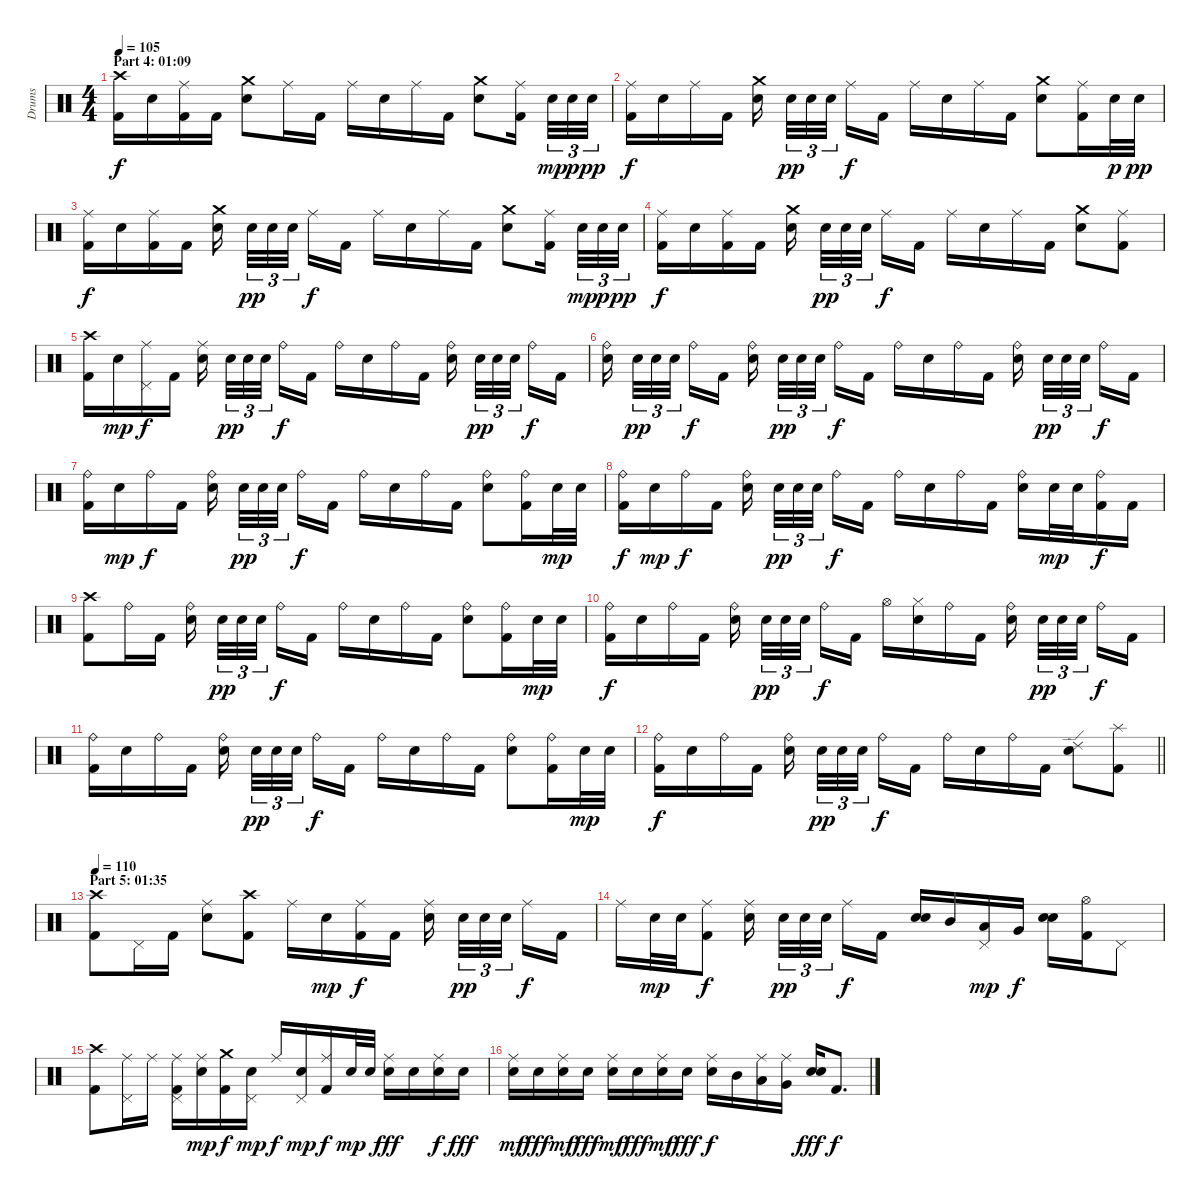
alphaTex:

\track ("Drums" "Drums") {instrument percussion}
\staff {score}
\articulation defaults
\ts (4 4)
\section ("" "Part 4: 01:09")
\tempo 105
\clef neutral
\ks c
("Crash high (hit)" "Kick (hit) 2").16{dy f} "Electric Snare (hit)".16 ("Ride (middle)" "Kick (hit) 2").16 "Kick (hit) 2".16 ("Crash medium (hit)" "Electric Snare (hit)").8 "Ride (middle)".16 "Kick (hit) 2".16 "Ride (middle)".16 "Electric Snare (hit)".16 "Ride (middle)".16 "Kick (hit) 2".16 ("Crash medium (hit)" "Electric Snare (hit)").8 ("Ride (middle)" "Kick (hit) 2").16{beam splitsecondary} "Electric Snare (hit)".32{tu (3 2) dy mp} "Electric Snare (hit)".32{tu (3 2) dy p} "Electric Snare (hit)".32{tu (3 2) dy pp} |
("Ride (middle)" "Kick (hit) 2").16{dy f} "Electric Snare (hit)".16 "Ride (middle)".16 "Kick (hit) 2".16 ("Crash medium (hit)" "Electric Snare (hit)").16{beam splitsecondary} "Electric Snare (hit)".32{tu (3 2) dy pp} "Electric Snare (hit)".32{tu (3 2)} "Electric Snare (hit)".32{tu (3 2) beam splitsecondary} "Ride (middle)".16{dy f} "Kick (hit) 2".16 "Ride (middle)".16 "Electric Snare (hit)".16 "Ride (middle)".16 "Kick (hit) 2".16 ("Crash medium (hit)" "Electric Snare (hit)").8 ("Ride (middle)" "Kick (hit) 2").16 "Electric Snare (hit)".32{dy p} "Electric Snare (hit)".32{dy pp} |
("Ride (middle)" "Kick (hit) 2").16{dy f} "Electric Snare (hit)".16 ("Ride (middle)" "Kick (hit) 2").16 "Kick (hit) 2".16 ("Crash medium (hit)" "Electric Snare (hit)").16{beam splitsecondary} "Electric Snare (hit)".32{tu (3 2) dy pp} "Electric Snare (hit)".32{tu (3 2)} "Electric Snare (hit)".32{tu (3 2) beam splitsecondary} "Ride (middle)".16{dy f} "Kick (hit) 2".16 "Ride (middle)".16 "Electric Snare (hit)".16 "Ride (middle)".16 "Kick (hit) 2".16 ("Crash medium (hit)" "Electric Snare (hit)").8 ("Ride (middle)" "Kick (hit) 2").16{beam splitsecondary} "Electric Snare (hit)".32{tu (3 2) dy mp} "Electric Snare (hit)".32{tu (3 2) dy p} "Electric Snare (hit)".32{tu (3 2) dy pp} |
("Ride (middle)" "Kick (hit) 2").16{dy f} "Electric Snare (hit)".16 ("Ride (middle)" "Kick (hit) 2").16 "Kick (hit) 2".16 ("Crash medium (hit)" "Electric Snare (hit)").16{beam splitsecondary} "Electric Snare (hit)".32{tu (3 2) dy pp} "Electric Snare (hit)".32{tu (3 2)} "Electric Snare (hit)".32{tu (3 2) beam splitsecondary} "Ride (middle)".16{dy f} "Kick (hit) 2".16 "Ride (middle)".16 "Electric Snare (hit)".16 "Ride (middle)".16 "Kick (hit) 2".16 ("Crash medium (hit)" "Electric Snare (hit)").8 ("Ride (middle)" "Kick (hit) 2").8 |
("Crash high (hit)" "Kick (hit) 2").16 "Electric Snare (hit)".16{dy mp} ("Ride (middle)" "Pedal Hi-Hat (hit)").16{dy f} "Kick (hit) 2".16 ("Ride (middle)" "Electric Snare (hit)").16{beam splitsecondary} "Electric Snare (hit)".32{tu (3 2) dy pp} "Electric Snare (hit)".32{tu (3 2)} "Electric Snare (hit)".32{tu (3 2) beam splitsecondary} "Ride (bell)".16{dy f} "Kick (hit) 2".16 "Ride (bell)".16 "Electric Snare (hit)".16 "Ride (bell)".16 "Kick (hit) 2".16 ("Ride (bell)" "Electric Snare (hit)").16{beam splitsecondary} "Electric Snare (hit)".32{tu (3 2) dy pp} "Electric Snare (hit)".32{tu (3 2)} "Electric Snare (hit)".32{tu (3 2) beam splitsecondary} "Ride (bell)".16{dy f} "Kick (hit) 2".16 |
("Ride (bell)" "Electric Snare (hit)").16{beam splitsecondary} "Electric Snare (hit)".32{tu (3 2) dy pp} "Electric Snare (hit)".32{tu (3 2)} "Electric Snare (hit)".32{tu (3 2) beam splitsecondary} "Ride (bell)".16{dy f} "Kick (hit) 2".16 ("Ride (bell)" "Electric Snare (hit)").16{beam splitsecondary} "Electric Snare (hit)".32{tu (3 2) dy pp} "Electric Snare (hit)".32{tu (3 2)} "Electric Snare (hit)".32{tu (3 2) beam splitsecondary} "Ride (bell)".16{dy f} "Kick (hit) 2".16 "Ride (bell)".16 "Electric Snare (hit)".16 "Ride (bell)".16 "Kick (hit) 2".16 ("Ride (bell)" "Electric Snare (hit)").16{beam splitsecondary} "Electric Snare (hit)".32{tu (3 2) dy pp} "Electric Snare (hit)".32{tu (3 2)} "Electric Snare (hit)".32{tu (3 2) beam splitsecondary} "Ride (bell)".16{dy f} "Kick (hit) 2".16 |
("Ride (bell)" "Kick (hit) 2").16 "Electric Snare (hit)".16{dy mp} "Ride (bell)".16{dy f} "Kick (hit) 2".16 ("Ride (bell)" "Electric Snare (hit)").16{beam splitsecondary} "Electric Snare (hit)".32{tu (3 2) dy pp} "Electric Snare (hit)".32{tu (3 2)} "Electric Snare (hit)".32{tu (3 2) beam splitsecondary} "Ride (bell)".16{dy f} "Kick (hit) 2".16 "Ride (bell)".16 "Electric Snare (hit)".16 "Ride (bell)".16 "Kick (hit) 2".16 ("Ride (bell)" "Electric Snare (hit)").8 ("Ride (bell)" "Kick (hit) 2").16 "Electric Snare (hit)".32{dy mp} "Electric Snare (hit)".32 |
("Ride (bell)" "Kick (hit) 2").16{dy f} "Electric Snare (hit)".16{dy mp} "Ride (bell)".16{dy f} "Kick (hit) 2".16 ("Ride (bell)" "Electric Snare (hit)").16{beam splitsecondary} "Electric Snare (hit)".32{tu (3 2) dy pp} "Electric Snare (hit)".32{tu (3 2)} "Electric Snare (hit)".32{tu (3 2) beam splitsecondary} "Ride (bell)".16{dy f} "Kick (hit) 2".16 "Ride (bell)".16 "Electric Snare (hit)".16 "Ride (bell)".16 "Kick (hit) 2".16 ("Ride (bell)" "Electric Snare (hit)").16 "Electric Snare (hit)".32{dy mp} "Electric Snare (hit)".32 ("Ride (bell)" "Kick (hit) 2").16{dy f} "Kick (hit) 2".16 |
("Crash high (hit)" "Kick (hit) 2").8 "Ride (bell)".16 "Kick (hit) 2".16 ("Ride (bell)" "Electric Snare (hit)").16{beam splitsecondary} "Electric Snare (hit)".32{tu (3 2) dy pp} "Electric Snare (hit)".32{tu (3 2)} "Electric Snare (hit)".32{tu (3 2) beam splitsecondary} "Ride (bell)".16{dy f} "Kick (hit) 2".16 "Ride (bell)".16 "Electric Snare (hit)".16 "Ride (bell)".16 "Kick (hit) 2".16 ("Ride (bell)" "Electric Snare (hit)").8 ("Ride (bell)" "Kick (hit) 2").16 "Electric Snare (hit)".32{dy mp} "Electric Snare (hit)".32 |
("Ride (bell)" "Kick (hit) 2").16{dy f} "Electric Snare (hit)".16 "Ride (bell)".16 "Kick (hit) 2".16 ("Ride (bell)" "Electric Snare (hit)").16{beam splitsecondary} "Electric Snare (hit)".32{tu (3 2) dy pp} "Electric Snare (hit)".32{tu (3 2)} "Electric Snare (hit)".32{tu (3 2) beam splitsecondary} "Ride (bell)".16{dy f} "Kick (hit) 2".16 "Hi-Hat (open)".16 ("Hi-Hat (closed)" "Electric Snare (hit)").16 "Ride (bell)".16 "Kick (hit) 2".16 ("Ride (bell)" "Electric Snare (hit)").16{beam splitsecondary} "Electric Snare (hit)".32{tu (3 2) dy pp} "Electric Snare (hit)".32{tu (3 2)} "Electric Snare (hit)".32{tu (3 2) beam splitsecondary} "Ride (bell)".16{dy f} "Kick (hit) 2".16 |
("Ride (bell)" "Kick (hit) 2").16 "Electric Snare (hit)".16 "Ride (bell)".16 "Kick (hit) 2".16 ("Ride (bell)" "Electric Snare (hit)").16{beam splitsecondary} "Electric Snare (hit)".32{tu (3 2) dy pp} "Electric Snare (hit)".32{tu (3 2)} "Electric Snare (hit)".32{tu (3 2) beam splitsecondary} "Ride (bell)".16{dy f} "Kick (hit) 2".16 "Ride (bell)".16 "Electric Snare (hit)".16 "Ride (bell)".16 "Kick (hit) 2".16 ("Ride (bell)" "Electric Snare (hit)").8 ("Ride (bell)" "Kick (hit) 2").16 "Electric Snare (hit)".32{dy mp} "Electric Snare (hit)".32 |
\barLineRight lightlight
("Ride (bell)" "Kick (hit) 2").16{dy f} "Electric Snare (hit)".16 "Ride (bell)".16 "Kick (hit) 2".16 ("Ride (bell)" "Electric Snare (hit)").16{beam splitsecondary} "Electric Snare (hit)".32{tu (3 2) dy pp} "Electric Snare (hit)".32{tu (3 2)} "Electric Snare (hit)".32{tu (3 2) beam splitsecondary} "Ride (bell)".16{dy f} "Kick (hit) 2".16 "Ride (bell)".16 "Electric Snare (hit)".16 "Ride (bell)".16 "Kick (hit) 2".16 ("Ride (edge) 2" "Electric Snare (hit)").8 ("Splash (hit)" "Kick (hit) 2").8 |
\section ("" "Part 5: 01:35")
\tempo 110
("Crash high (hit)" "Kick (hit) 2").8 "Pedal Hi-Hat (hit)".16 "Kick (hit) 2".16 ("Ride (middle)" "Electric Snare (hit)").8 ("Crash high (hit)" "Kick (hit) 2").8 "Ride (middle)".16 "Electric Snare (hit)".16{dy mp} ("Ride (middle)" "Kick (hit) 2").16{dy f} "Kick (hit) 2".16 ("Ride (middle)" "Electric Snare (hit)").16{beam splitsecondary} "Electric Snare (hit)".32{tu (3 2) dy pp} "Electric Snare (hit)".32{tu (3 2)} "Electric Snare (hit)".32{tu (3 2) beam splitsecondary} "Ride (middle)".16{dy f} "Kick (hit) 2".16 |
"Ride (middle)".16 "Electric Snare (hit)".32{dy mp} "Electric Snare (hit)".32 ("Ride (middle)" "Kick (hit) 2").8{dy f} ("Ride (middle)" "Electric Snare (hit)").16{beam splitsecondary} "Electric Snare (hit)".32{tu (3 2) dy pp} "Electric Snare (hit)".32{tu (3 2)} "Electric Snare (hit)".32{tu (3 2) beam splitsecondary} "Ride (middle)".16{dy f} "Kick (hit) 2".16 ("Electric Snare (hit)" "Electric Snare (hit)").16{bu 60} "Mid Tom (hit)".16 ("Pedal Hi-Hat (hit)" "Low Tom (hit)").16{dy mp} "Very Low Tom (hit)".16{dy f} ("Electric Snare (hit)" "Electric Snare (hit)").16{bu 60} ("Hi-Hat (open)" "Kick (hit) 2").16 "Pedal Hi-Hat (hit)".8 |
("Crash high (hit)" "Kick (hit) 2").8 ("Ride (middle)" "Pedal Hi-Hat (hit)").16 "Ride (middle)".16 ("Ride (middle)" "Pedal Hi-Hat (hit)" "Kick (hit) 2").16 ("Ride (middle)" "Electric Snare (hit)").16{dy mp} ("Crash medium (hit)" "Kick (hit) 2").16{dy f} ("Pedal Hi-Hat (hit)" "Electric Snare (hit)").16{dy mp} "Ride (middle)".16{dy f} ("Pedal Hi-Hat (hit)" "Electric Snare (hit)").16{dy mp} ("Ride (middle)" "Kick (hit) 2").16{dy f} "Electric Snare (hit)".32{dy mp} "Electric Snare (hit)".32 ("Ride (middle)" "Electric Snare (hit)").16{dy fff} "Electric Snare (hit)".16 ("Ride (middle)" "Electric Snare (hit)").16{dy f} "Electric Snare (hit)".16{dy fff} |
("Ride (middle)" "Electric Snare (hit)").16{dy mf} "Electric Snare (hit)".16{dy fff} ("Ride (middle)" "Electric Snare (hit)").16{dy mf} "Electric Snare (hit)".16{dy fff} ("Ride (middle)" "Electric Snare (hit)").16{dy mf} "Electric Snare (hit)".16{dy fff} ("Ride (middle)" "Electric Snare (hit)").16{dy mf} "Electric Snare (hit)".16{dy fff} ("Ride (middle)" "Electric Snare (hit)").16{dy f} "Mid Tom (hit)".16 ("Ride (middle)" "Low Tom (hit)").16 ("Ride (middle)" "Very Low Tom (hit)").16 ("Electric Snare (hit)" "Electric Snare (hit)").16{bd 60 dy fff} "Kick (hit) 2".8{d dy f}
